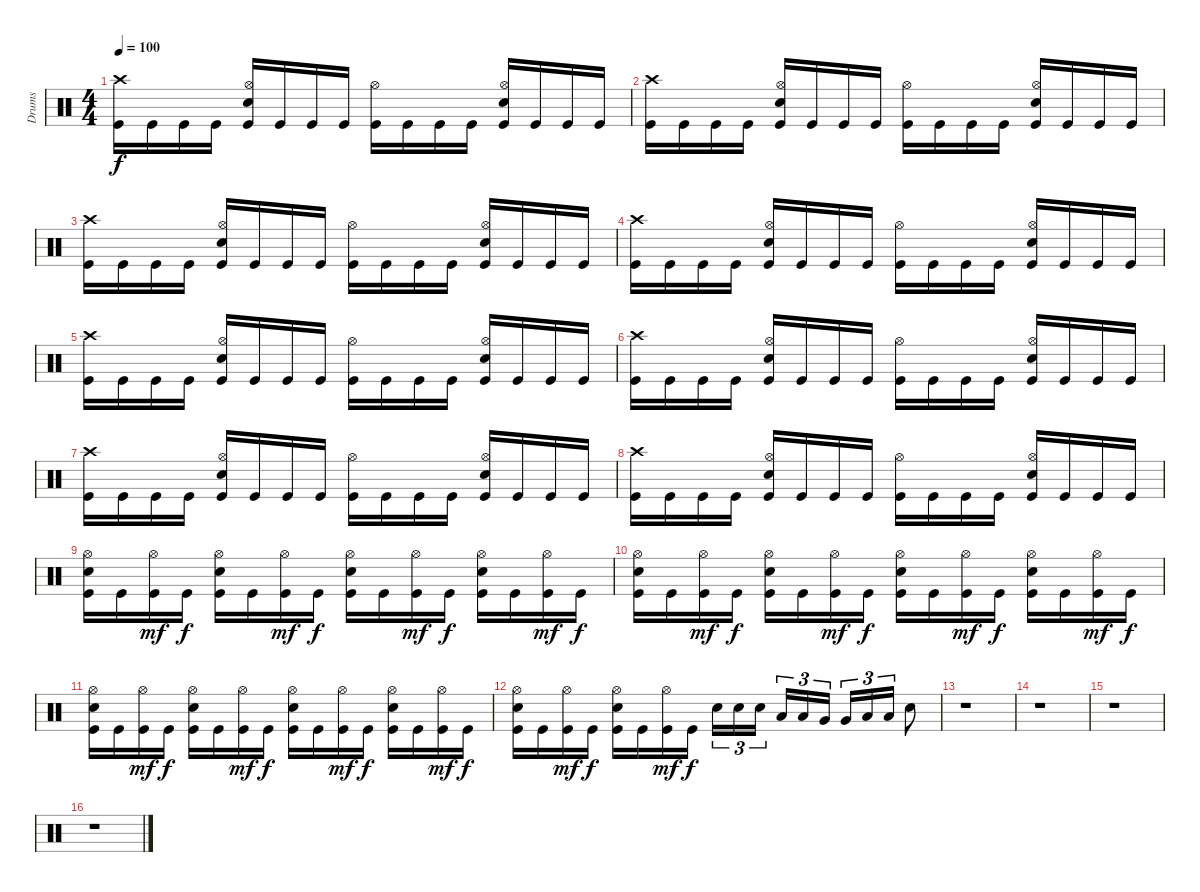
\track ("Drums" "Drums") {instrument percussion}
\staff {score}
\articulation defaults
\ts (4 4)
\tempo 100
\clef neutral
\ks c
("Kick (hit)" "Crash high (hit)").16{dy f} "Kick (hit)".16 "Kick (hit)".16 "Kick (hit)".16 ("Kick (hit)" "Hi-Hat (open)" "Snare (hit) 2").16 "Kick (hit)".16 "Kick (hit)".16 "Kick (hit)".16 ("Kick (hit)" "Hi-Hat (open)").16 "Kick (hit)".16 "Kick (hit)".16 "Kick (hit)".16 ("Kick (hit)" "Hi-Hat (open)" "Snare (hit) 2").16 "Kick (hit)".16 "Kick (hit)".16 "Kick (hit)".16 |
("Kick (hit)" "Crash high (hit)").16 "Kick (hit)".16 "Kick (hit)".16 "Kick (hit)".16 ("Kick (hit)" "Hi-Hat (open)" "Snare (hit) 2").16 "Kick (hit)".16 "Kick (hit)".16 "Kick (hit)".16 ("Kick (hit)" "Hi-Hat (open)").16 "Kick (hit)".16 "Kick (hit)".16 "Kick (hit)".16 ("Kick (hit)" "Hi-Hat (open)" "Snare (hit) 2").16 "Kick (hit)".16 "Kick (hit)".16 "Kick (hit)".16 |
("Kick (hit)" "Crash high (hit)").16 "Kick (hit)".16 "Kick (hit)".16 "Kick (hit)".16 ("Kick (hit)" "Hi-Hat (open)" "Snare (hit) 2").16 "Kick (hit)".16 "Kick (hit)".16 "Kick (hit)".16 ("Kick (hit)" "Hi-Hat (open)").16 "Kick (hit)".16 "Kick (hit)".16 "Kick (hit)".16 ("Kick (hit)" "Hi-Hat (open)" "Snare (hit) 2").16 "Kick (hit)".16 "Kick (hit)".16 "Kick (hit)".16 |
("Kick (hit)" "Crash high (hit)").16 "Kick (hit)".16 "Kick (hit)".16 "Kick (hit)".16 ("Kick (hit)" "Hi-Hat (open)" "Snare (hit) 2").16 "Kick (hit)".16 "Kick (hit)".16 "Kick (hit)".16 ("Kick (hit)" "Hi-Hat (open)").16 "Kick (hit)".16 "Kick (hit)".16 "Kick (hit)".16 ("Kick (hit)" "Hi-Hat (open)" "Snare (hit) 2").16 "Kick (hit)".16 "Kick (hit)".16 "Kick (hit)".16 |
("Kick (hit)" "Crash high (hit)").16 "Kick (hit)".16 "Kick (hit)".16 "Kick (hit)".16 ("Kick (hit)" "Hi-Hat (open)" "Snare (hit) 2").16 "Kick (hit)".16 "Kick (hit)".16 "Kick (hit)".16 ("Kick (hit)" "Hi-Hat (open)").16 "Kick (hit)".16 "Kick (hit)".16 "Kick (hit)".16 ("Kick (hit)" "Hi-Hat (open)" "Snare (hit) 2").16 "Kick (hit)".16 "Kick (hit)".16 "Kick (hit)".16 |
("Kick (hit)" "Crash high (hit)").16 "Kick (hit)".16 "Kick (hit)".16 "Kick (hit)".16 ("Kick (hit)" "Hi-Hat (open)" "Snare (hit) 2").16 "Kick (hit)".16 "Kick (hit)".16 "Kick (hit)".16 ("Kick (hit)" "Hi-Hat (open)").16 "Kick (hit)".16 "Kick (hit)".16 "Kick (hit)".16 ("Kick (hit)" "Hi-Hat (open)" "Snare (hit) 2").16 "Kick (hit)".16 "Kick (hit)".16 "Kick (hit)".16 |
("Kick (hit)" "Crash high (hit)").16 "Kick (hit)".16 "Kick (hit)".16 "Kick (hit)".16 ("Kick (hit)" "Hi-Hat (open)" "Snare (hit) 2").16 "Kick (hit)".16 "Kick (hit)".16 "Kick (hit)".16 ("Kick (hit)" "Hi-Hat (open)").16 "Kick (hit)".16 "Kick (hit)".16 "Kick (hit)".16 ("Kick (hit)" "Hi-Hat (open)" "Snare (hit) 2").16 "Kick (hit)".16 "Kick (hit)".16 "Kick (hit)".16 |
("Kick (hit)" "Crash high (hit)").16 "Kick (hit)".16 "Kick (hit)".16 "Kick (hit)".16 ("Kick (hit)" "Hi-Hat (open)" "Snare (hit) 2").16 "Kick (hit)".16 "Kick (hit)".16 "Kick (hit)".16 ("Kick (hit)" "Hi-Hat (open)").16 "Kick (hit)".16 "Kick (hit)".16 "Kick (hit)".16 ("Kick (hit)" "Hi-Hat (open)" "Snare (hit) 2").16 "Kick (hit)".16 "Kick (hit)".16 "Kick (hit)".16 |
("Hi-Hat (open)" "Snare (hit) 2" "Kick (hit)").16 "Kick (hit)".16 ("Hi-Hat (open)" "Kick (hit)").16{dy mf} "Kick (hit)".16{dy f} ("Hi-Hat (open)" "Snare (hit) 2" "Kick (hit)").16 "Kick (hit)".16 ("Hi-Hat (open)" "Kick (hit)").16{dy mf} "Kick (hit)".16{dy f} ("Hi-Hat (open)" "Snare (hit) 2" "Kick (hit)").16 "Kick (hit)".16 ("Hi-Hat (open)" "Kick (hit)").16{dy mf} "Kick (hit)".16{dy f} ("Hi-Hat (open)" "Snare (hit) 2" "Kick (hit)").16 "Kick (hit)".16 ("Hi-Hat (open)" "Kick (hit)").16{dy mf} "Kick (hit)".16{dy f} |
("Hi-Hat (open)" "Snare (hit) 2" "Kick (hit)").16 "Kick (hit)".16 ("Hi-Hat (open)" "Kick (hit)").16{dy mf} "Kick (hit)".16{dy f} ("Hi-Hat (open)" "Snare (hit) 2" "Kick (hit)").16 "Kick (hit)".16 ("Hi-Hat (open)" "Kick (hit)").16{dy mf} "Kick (hit)".16{dy f} ("Hi-Hat (open)" "Snare (hit) 2" "Kick (hit)").16 "Kick (hit)".16 ("Hi-Hat (open)" "Kick (hit)").16{dy mf} "Kick (hit)".16{dy f} ("Hi-Hat (open)" "Snare (hit) 2" "Kick (hit)").16 "Kick (hit)".16 ("Hi-Hat (open)" "Kick (hit)").16{dy mf} "Kick (hit)".16{dy f} |
("Hi-Hat (open)" "Snare (hit) 2" "Kick (hit)").16 "Kick (hit)".16 ("Hi-Hat (open)" "Kick (hit)").16{dy mf} "Kick (hit)".16{dy f} ("Hi-Hat (open)" "Snare (hit) 2" "Kick (hit)").16 "Kick (hit)".16 ("Hi-Hat (open)" "Kick (hit)").16{dy mf} "Kick (hit)".16{dy f} ("Hi-Hat (open)" "Snare (hit) 2" "Kick (hit)").16 "Kick (hit)".16 ("Hi-Hat (open)" "Kick (hit)").16{dy mf} "Kick (hit)".16{dy f} ("Hi-Hat (open)" "Snare (hit) 2" "Kick (hit)").16 "Kick (hit)".16 ("Hi-Hat (open)" "Kick (hit)").16{dy mf} "Kick (hit)".16{dy f} |
("Hi-Hat (open)" "Snare (hit) 2" "Kick (hit)").16 "Kick (hit)".16 ("Hi-Hat (open)" "Kick (hit)").16{dy mf} "Kick (hit)".16{dy f} ("Hi-Hat (open)" "Snare (hit) 2" "Kick (hit)").16 "Kick (hit)".16 ("Hi-Hat (open)" "Kick (hit)").16{dy mf} "Kick (hit)".16{dy f} "Snare (hit) 2".16{tu (3 2)} "Snare (hit) 2".16{tu (3 2)} "Snare (hit) 2".16{tu (3 2)} "Low Tom (hit)".16{tu (3 2)} "Low Tom (hit)".16{tu (3 2)} "Very Low Tom (hit)".16{tu (3 2)} "Very Low Tom (hit)".16{tu (3 2)} "Low Floor Tom (hit)".16{tu (3 2)} "Low Floor Tom (hit)".16{tu (3 2)} "Snare (hit) 2".8 |
r.1 |
r.1 |
r.1 |
r.1
